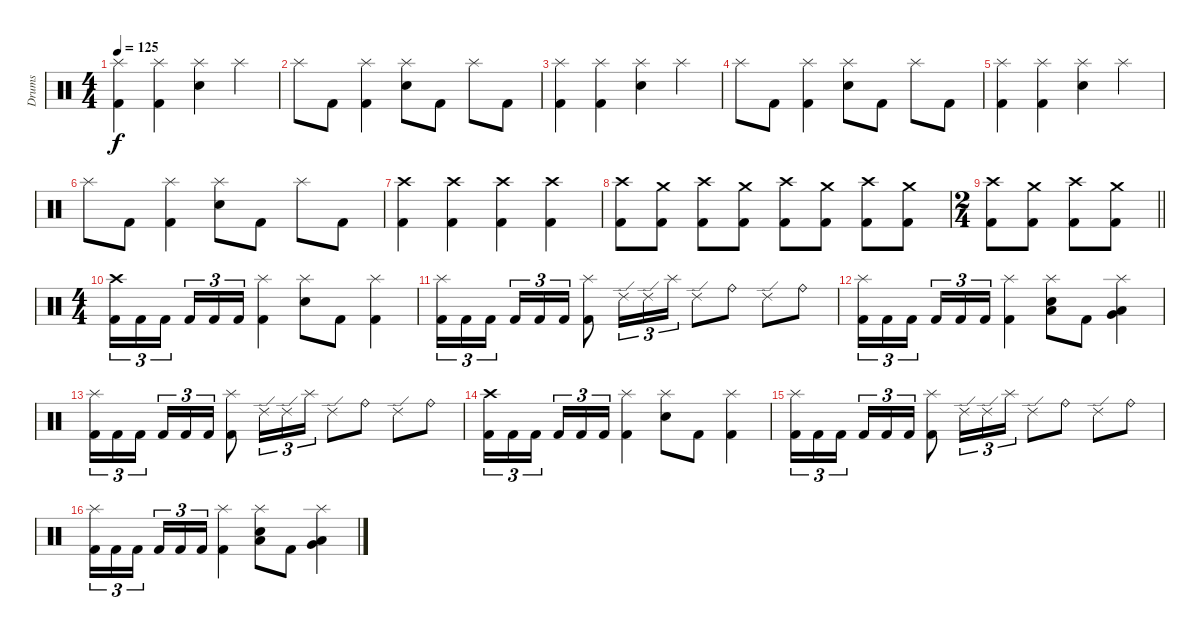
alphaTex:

\track ("Drums" "Drums") {instrument percussion}
\staff {score}
\articulation defaults
\ts (4 4)
\tempo 125
\clef neutral
\ks c
("Splash (hit)" "Kick (hit) 2").4{dy f} ("Splash (hit)" "Kick (hit) 2").4 ("Splash (hit)" "Electric Snare (hit)").4 "Splash (hit)".4 |
"Splash (hit)".8 "Kick (hit) 2".8 ("Splash (hit)" "Kick (hit) 2").4 ("Splash (hit)" "Electric Snare (hit)").8 "Kick (hit) 2".8 "Splash (hit)".8 "Kick (hit) 2".8 |
("Splash (hit)" "Kick (hit) 2").4 ("Splash (hit)" "Kick (hit) 2").4 ("Splash (hit)" "Electric Snare (hit)").4 "Splash (hit)".4 |
"Splash (hit)".8 "Kick (hit) 2".8 ("Splash (hit)" "Kick (hit) 2").4 ("Splash (hit)" "Electric Snare (hit)").8 "Kick (hit) 2".8 "Splash (hit)".8 "Kick (hit) 2".8 |
("Splash (hit)" "Kick (hit) 2").4 ("Splash (hit)" "Kick (hit) 2").4 ("Splash (hit)" "Electric Snare (hit)").4 "Splash (hit)".4 |
"Splash (hit)".8 "Kick (hit) 2".8 ("Splash (hit)" "Kick (hit) 2").4 ("Splash (hit)" "Electric Snare (hit)").8 "Kick (hit) 2".8 "Splash (hit)".8 "Kick (hit) 2".8 |
("Crash high (hit)" "Kick (hit) 2").4 ("Crash high (hit)" "Kick (hit) 2").4 ("Crash high (hit)" "Kick (hit) 2").4 ("Crash high (hit)" "Kick (hit) 2").4 |
("Crash high (hit)" "Kick (hit) 2").8 ("Crash medium (hit)" "Kick (hit) 2").8 ("Crash high (hit)" "Kick (hit) 2").8 ("Crash medium (hit)" "Kick (hit) 2").8 ("Crash high (hit)" "Kick (hit) 2").8 ("Crash medium (hit)" "Kick (hit) 2").8 ("Crash high (hit)" "Kick (hit) 2").8 ("Crash medium (hit)" "Kick (hit) 2").8 |
\ts (2 4)
\barLineRight lightlight
("Crash high (hit)" "Kick (hit) 2").8 ("Crash medium (hit)" "Kick (hit) 2").8 ("Crash high (hit)" "Kick (hit) 2").8 ("Crash medium (hit)" "Kick (hit) 2").8 |
\ts (4 4)
("Crash high (hit)" "Kick (hit) 2").16{tu (3 2)} "Kick (hit) 2".16{tu (3 2)} "Kick (hit) 2".16{tu (3 2) beam splitsecondary} "Kick (hit) 2".16{tu (3 2)} "Kick (hit) 2".16{tu (3 2)} "Kick (hit) 2".16{tu (3 2)} ("Splash (hit)" "Kick (hit) 2").4 ("Splash (hit)" "Electric Snare (hit)").8 "Kick (hit) 2".8 ("Splash (hit)" "Kick (hit) 2").4 |
("Splash (hit)" "Kick (hit) 2").16{tu (3 2)} "Kick (hit) 2".16{tu (3 2)} "Kick (hit) 2".16{tu (3 2) beam splitsecondary} "Kick (hit) 2".16{tu (3 2)} "Kick (hit) 2".16{tu (3 2)} "Kick (hit) 2".16{tu (3 2)} ("Splash (hit)" "Kick (hit) 2").8 "Ride (edge) 2".16{tu (3 2)} "Ride (edge) 2".16{tu (3 2)} "Splash (hit)".16{tu (3 2)} "Ride (edge) 2".8 "Ride (bell)".8 "Ride (edge) 2".8 "Ride (bell)".8 |
("Splash (hit)" "Kick (hit) 2").16{tu (3 2)} "Kick (hit) 2".16{tu (3 2)} "Kick (hit) 2".16{tu (3 2) beam splitsecondary} "Kick (hit) 2".16{tu (3 2)} "Kick (hit) 2".16{tu (3 2)} "Kick (hit) 2".16{tu (3 2)} ("Splash (hit)" "Kick (hit) 2").4 ("Splash (hit)" "Electric Snare (hit)" "Low Tom (hit)").8 "Kick (hit) 2".8 ("Splash (hit)" "Low Tom (hit)" "Very Low Tom (hit)").4 |
("Splash (hit)" "Kick (hit) 2").16{tu (3 2)} "Kick (hit) 2".16{tu (3 2)} "Kick (hit) 2".16{tu (3 2) beam splitsecondary} "Kick (hit) 2".16{tu (3 2)} "Kick (hit) 2".16{tu (3 2)} "Kick (hit) 2".16{tu (3 2)} ("Splash (hit)" "Kick (hit) 2").8 "Ride (edge) 2".16{tu (3 2)} "Ride (edge) 2".16{tu (3 2)} "Splash (hit)".16{tu (3 2)} "Ride (edge) 2".8 "Ride (bell)".8 "Ride (edge) 2".8 "Ride (bell)".8 |
("Crash high (hit)" "Kick (hit) 2").16{tu (3 2)} "Kick (hit) 2".16{tu (3 2)} "Kick (hit) 2".16{tu (3 2) beam splitsecondary} "Kick (hit) 2".16{tu (3 2)} "Kick (hit) 2".16{tu (3 2)} "Kick (hit) 2".16{tu (3 2)} ("Splash (hit)" "Kick (hit) 2").4 ("Splash (hit)" "Electric Snare (hit)").8 "Kick (hit) 2".8 ("Splash (hit)" "Kick (hit) 2").4 |
("Splash (hit)" "Kick (hit) 2").16{tu (3 2)} "Kick (hit) 2".16{tu (3 2)} "Kick (hit) 2".16{tu (3 2) beam splitsecondary} "Kick (hit) 2".16{tu (3 2)} "Kick (hit) 2".16{tu (3 2)} "Kick (hit) 2".16{tu (3 2)} ("Splash (hit)" "Kick (hit) 2").8 "Ride (edge) 2".16{tu (3 2)} "Ride (edge) 2".16{tu (3 2)} "Splash (hit)".16{tu (3 2)} "Ride (edge) 2".8 "Ride (bell)".8 "Ride (edge) 2".8 "Ride (bell)".8 |
("Splash (hit)" "Kick (hit) 2").16{tu (3 2)} "Kick (hit) 2".16{tu (3 2)} "Kick (hit) 2".16{tu (3 2) beam splitsecondary} "Kick (hit) 2".16{tu (3 2)} "Kick (hit) 2".16{tu (3 2)} "Kick (hit) 2".16{tu (3 2)} ("Splash (hit)" "Kick (hit) 2").4 ("Splash (hit)" "Electric Snare (hit)" "Low Tom (hit)").8 "Kick (hit) 2".8 ("Splash (hit)" "Low Tom (hit)" "Very Low Tom (hit)").4
